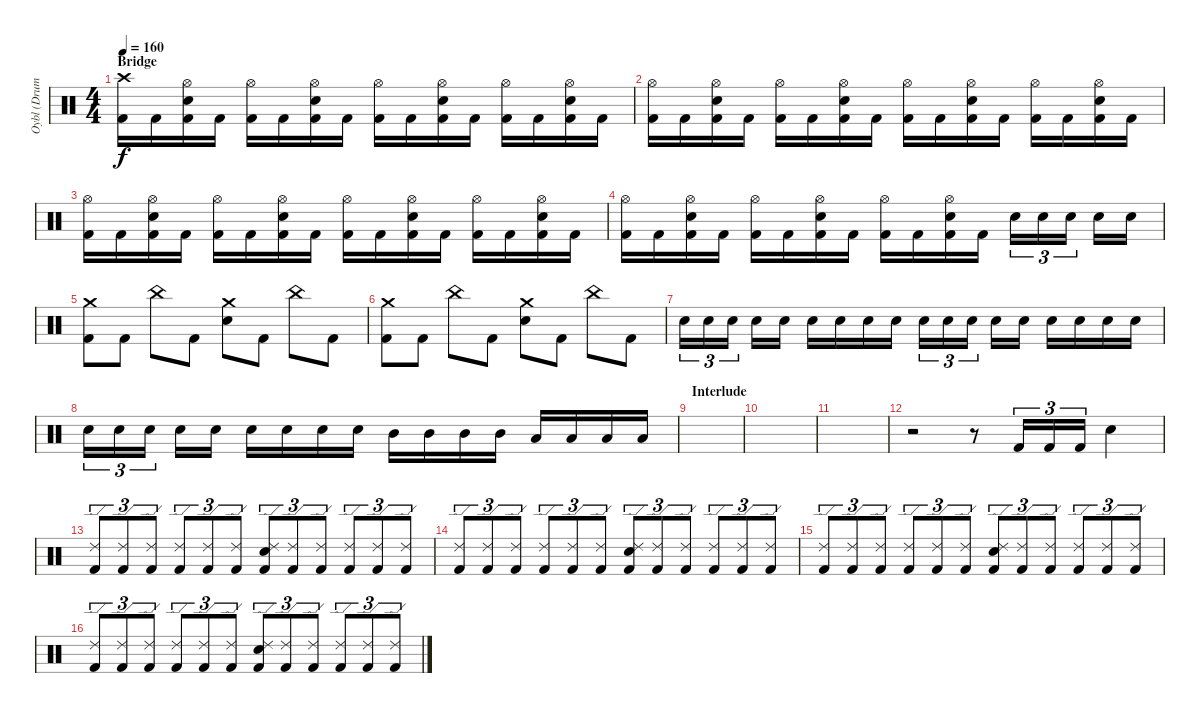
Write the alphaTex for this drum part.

\track ("Oybl (Drums)" "Oybl (Drum") {instrument percussion}
\staff {score}
\articulation defaults
\ts (4 4)
\section ("" "Bridge")
\tempo 160
\clef neutral
\ks c
("Crash high (hit)" "Kick (hit) 2").16{dy f} "Kick (hit) 2".16 ("Hi-Hat (open)" "Snare (hit) 2" "Kick (hit) 2").16 "Kick (hit) 2".16 ("Hi-Hat (open)" "Kick (hit) 2").16 "Kick (hit) 2".16 ("Hi-Hat (open)" "Snare (hit) 2" "Kick (hit) 2").16 "Kick (hit) 2".16 ("Hi-Hat (open)" "Kick (hit) 2").16 "Kick (hit) 2".16 ("Hi-Hat (open)" "Snare (hit) 2" "Kick (hit) 2").16 "Kick (hit) 2".16 ("Hi-Hat (open)" "Kick (hit) 2").16 "Kick (hit) 2".16 ("Hi-Hat (open)" "Snare (hit) 2" "Kick (hit) 2").16 "Kick (hit) 2".16 |
("Hi-Hat (open)" "Kick (hit) 2").16 "Kick (hit) 2".16 ("Hi-Hat (open)" "Snare (hit) 2" "Kick (hit) 2").16 "Kick (hit) 2".16 ("Hi-Hat (open)" "Kick (hit) 2").16 "Kick (hit) 2".16 ("Hi-Hat (open)" "Snare (hit) 2" "Kick (hit) 2").16 "Kick (hit) 2".16 ("Hi-Hat (open)" "Kick (hit) 2").16 "Kick (hit) 2".16 ("Hi-Hat (open)" "Snare (hit) 2" "Kick (hit) 2").16 "Kick (hit) 2".16 ("Hi-Hat (open)" "Kick (hit) 2").16 "Kick (hit) 2".16 ("Hi-Hat (open)" "Snare (hit) 2" "Kick (hit) 2").16 "Kick (hit) 2".16 |
("Hi-Hat (open)" "Kick (hit) 2").16 "Kick (hit) 2".16 ("Hi-Hat (open)" "Snare (hit) 2" "Kick (hit) 2").16 "Kick (hit) 2".16 ("Hi-Hat (open)" "Kick (hit) 2").16 "Kick (hit) 2".16 ("Hi-Hat (open)" "Snare (hit) 2" "Kick (hit) 2").16 "Kick (hit) 2".16 ("Hi-Hat (open)" "Kick (hit) 2").16 "Kick (hit) 2".16 ("Hi-Hat (open)" "Snare (hit) 2" "Kick (hit) 2").16 "Kick (hit) 2".16 ("Hi-Hat (open)" "Kick (hit) 2").16 "Kick (hit) 2".16 ("Hi-Hat (open)" "Snare (hit) 2" "Kick (hit) 2").16 "Kick (hit) 2".16 |
("Hi-Hat (open)" "Kick (hit) 2").16 "Kick (hit) 2".16 ("Hi-Hat (open)" "Snare (hit) 2" "Kick (hit) 2").16 "Kick (hit) 2".16 ("Hi-Hat (open)" "Kick (hit) 2").16 "Kick (hit) 2".16 ("Hi-Hat (open)" "Snare (hit) 2" "Kick (hit) 2").16 "Kick (hit) 2".16 ("Hi-Hat (open)" "Kick (hit) 2").16 "Kick (hit) 2".16 ("Hi-Hat (open)" "Snare (hit) 2" "Kick (hit) 2").16 "Kick (hit) 2".16 "Snare (hit) 2".16{tu (3 2)} "Snare (hit) 2".16{tu (3 2)} "Snare (hit) 2".16{tu (3 2)} "Snare (hit) 2".16 "Snare (hit) 2".16 |
("Crash medium (hit)" "Kick (hit) 2").8 "Kick (hit) 2".8 "China (hit)".8 "Kick (hit) 2".8 ("Crash medium (hit)" "Snare (hit) 2").8 "Kick (hit) 2".8 "China (hit)".8 "Kick (hit) 2".8 |
("Crash medium (hit)" "Kick (hit) 2").8 "Kick (hit) 2".8 "China (hit)".8 "Kick (hit) 2".8 ("Crash medium (hit)" "Snare (hit) 2").8 "Kick (hit) 2".8 "China (hit)".8 "Kick (hit) 2".8 |
"Snare (hit) 2".16{tu (3 2)} "Snare (hit) 2".16{tu (3 2)} "Snare (hit) 2".16{tu (3 2)} "Snare (hit) 2".16 "Snare (hit) 2".16 "Snare (hit) 2".16 "Snare (hit) 2".16 "Snare (hit) 2".16 "Snare (hit) 2".16 "Snare (hit) 2".16{tu (3 2)} "Snare (hit) 2".16{tu (3 2)} "Snare (hit) 2".16{tu (3 2)} "Snare (hit) 2".16 "Snare (hit) 2".16 "Snare (hit) 2".16 "Snare (hit) 2".16 "Snare (hit) 2".16 "Snare (hit) 2".16 |
"Snare (hit) 2".16{tu (3 2)} "Snare (hit) 2".16{tu (3 2)} "Snare (hit) 2".16{tu (3 2)} "Snare (hit) 2".16 "Snare (hit) 2".16 "Snare (hit) 2".16 "Snare (hit) 2".16 "Snare (hit) 2".16 "Snare (hit) 2".16 "Mid Tom (hit)".16 "Mid Tom (hit)".16 "Mid Tom (hit)".16 "Mid Tom (hit)".16 "Low Tom (hit)".16 "Low Tom (hit)".16 "Low Tom (hit)".16 "Low Tom (hit)".16 |
\section ("" "Interlude")
|
|
|
r.2 r.8 "Kick (hit) 2".16{tu (3 2)} "Kick (hit) 2".16{tu (3 2)} "Kick (hit) 2".16{tu (3 2)} "Snare (hit) 2".4 |
("Ride (edge) 2" "Kick (hit) 2").8{tu (3 2)} ("Ride (edge) 2" "Kick (hit) 2").8{tu (3 2)} ("Ride (edge) 2" "Kick (hit) 2").8{tu (3 2)} ("Ride (edge) 2" "Kick (hit) 2").8{tu (3 2)} ("Ride (edge) 2" "Kick (hit) 2").8{tu (3 2)} ("Ride (edge) 2" "Kick (hit) 2").8{tu (3 2)} ("Ride (edge) 2" "Snare (hit) 2" "Kick (hit) 2").8{tu (3 2)} ("Ride (edge) 2" "Kick (hit) 2").8{tu (3 2)} ("Ride (edge) 2" "Kick (hit) 2").8{tu (3 2)} ("Ride (edge) 2" "Kick (hit) 2").8{tu (3 2)} ("Ride (edge) 2" "Kick (hit) 2").8{tu (3 2)} ("Ride (edge) 2" "Kick (hit) 2").8{tu (3 2)} |
("Ride (edge) 2" "Kick (hit) 2").8{tu (3 2)} ("Ride (edge) 2" "Kick (hit) 2").8{tu (3 2)} ("Ride (edge) 2" "Kick (hit) 2").8{tu (3 2)} ("Ride (edge) 2" "Kick (hit) 2").8{tu (3 2)} ("Ride (edge) 2" "Kick (hit) 2").8{tu (3 2)} ("Ride (edge) 2" "Kick (hit) 2").8{tu (3 2)} ("Ride (edge) 2" "Snare (hit) 2" "Kick (hit) 2").8{tu (3 2)} ("Ride (edge) 2" "Kick (hit) 2").8{tu (3 2)} ("Ride (edge) 2" "Kick (hit) 2").8{tu (3 2)} ("Ride (edge) 2" "Kick (hit) 2").8{tu (3 2)} ("Ride (edge) 2" "Kick (hit) 2").8{tu (3 2)} ("Ride (edge) 2" "Kick (hit) 2").8{tu (3 2)} |
("Ride (edge) 2" "Kick (hit) 2").8{tu (3 2)} ("Ride (edge) 2" "Kick (hit) 2").8{tu (3 2)} ("Ride (edge) 2" "Kick (hit) 2").8{tu (3 2)} ("Ride (edge) 2" "Kick (hit) 2").8{tu (3 2)} ("Ride (edge) 2" "Kick (hit) 2").8{tu (3 2)} ("Ride (edge) 2" "Kick (hit) 2").8{tu (3 2)} ("Ride (edge) 2" "Snare (hit) 2" "Kick (hit) 2").8{tu (3 2)} ("Ride (edge) 2" "Kick (hit) 2").8{tu (3 2)} ("Ride (edge) 2" "Kick (hit) 2").8{tu (3 2)} ("Ride (edge) 2" "Kick (hit) 2").8{tu (3 2)} ("Ride (edge) 2" "Kick (hit) 2").8{tu (3 2)} ("Ride (edge) 2" "Kick (hit) 2").8{tu (3 2)} |
("Ride (edge) 2" "Kick (hit) 2").8{tu (3 2)} ("Ride (edge) 2" "Kick (hit) 2").8{tu (3 2)} ("Ride (edge) 2" "Kick (hit) 2").8{tu (3 2)} ("Ride (edge) 2" "Kick (hit) 2").8{tu (3 2)} ("Ride (edge) 2" "Kick (hit) 2").8{tu (3 2)} ("Ride (edge) 2" "Kick (hit) 2").8{tu (3 2)} ("Ride (edge) 2" "Snare (hit) 2" "Kick (hit) 2").8{tu (3 2)} ("Ride (edge) 2" "Kick (hit) 2").8{tu (3 2)} ("Ride (edge) 2" "Kick (hit) 2").8{tu (3 2)} ("Ride (edge) 2" "Kick (hit) 2").8{tu (3 2)} ("Ride (edge) 2" "Kick (hit) 2").8{tu (3 2)} ("Ride (edge) 2" "Kick (hit) 2").8{tu (3 2)}
